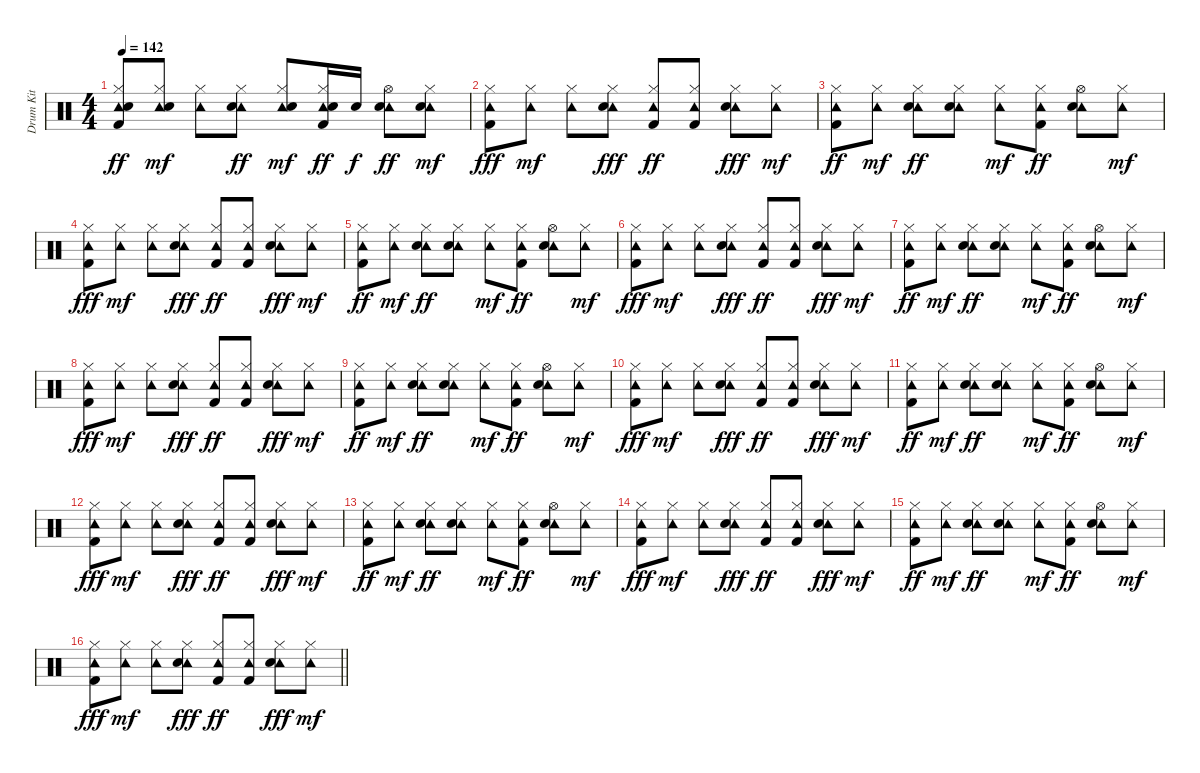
\track ("Drum Kit" "Drum Kit") {instrument percussion}
\staff {score}
\articulation defaults
\ts (4 4)
\tempo 142
\clef neutral
\ks c
("Tambourine (hit)" "Hi-Hat (closed)" "Electric Snare (hit)" "Kick (hit) 2").8{dy ff} ("Tambourine (hit)" "Electric Snare (hit)" "Hi-Hat (closed)").8{dy mf} ("Tambourine (hit)" "Hi-Hat (closed)").8 ("Tambourine (hit)" "Hi-Hat (closed)" "Electric Snare (hit)").8{dy ff} ("Tambourine (hit)" "Electric Snare (hit)" "Hi-Hat (closed)").8{dy mf} ("Tambourine (hit)" "Electric Snare (hit)" "Hi-Hat (closed)" "Kick (hit) 2").16{dy ff} "Electric Snare (hit)".16{dy f} ("Tambourine (hit)" "Hi-Hat (open)" "Electric Snare (hit)").8{dy ff} ("Tambourine (hit)" "Electric Snare (hit)" "Hi-Hat (closed)").8{dy mf} |
("Hi-Hat (closed)" "Tambourine (hit)" "Kick (hit) 2").8{dy fff} ("Tambourine (hit)" "Hi-Hat (closed)").8{dy mf} ("Tambourine (hit)" "Hi-Hat (closed)").8 ("Tambourine (hit)" "Hi-Hat (closed)" "Electric Snare (hit)").8{dy fff} ("Tambourine (hit)" "Hi-Hat (closed)" "Kick (hit) 2").8{dy ff} ("Tambourine (hit)" "Hi-Hat (closed)" "Kick (hit) 2").8 ("Tambourine (hit)" "Hi-Hat (closed)" "Electric Snare (hit)").8{dy fff} ("Tambourine (hit)" "Hi-Hat (closed)").8{dy mf} |
("Tambourine (hit)" "Hi-Hat (closed)" "Kick (hit) 2").8{dy ff} ("Tambourine (hit)" "Hi-Hat (closed)").8{dy mf} ("Tambourine (hit)" "Hi-Hat (closed)" "Electric Snare (hit)").8{dy ff} ("Tambourine (hit)" "Hi-Hat (closed)" "Electric Snare (hit)").8 ("Tambourine (hit)" "Hi-Hat (closed)").8{dy mf} ("Tambourine (hit)" "Hi-Hat (closed)" "Kick (hit) 2").8{dy ff} ("Tambourine (hit)" "Hi-Hat (open)" "Electric Snare (hit)").8 ("Tambourine (hit)" "Hi-Hat (closed)").8{dy mf} |
("Hi-Hat (closed)" "Tambourine (hit)" "Kick (hit) 2").8{dy fff} ("Tambourine (hit)" "Hi-Hat (closed)").8{dy mf} ("Tambourine (hit)" "Hi-Hat (closed)").8 ("Tambourine (hit)" "Hi-Hat (closed)" "Electric Snare (hit)").8{dy fff} ("Tambourine (hit)" "Hi-Hat (closed)" "Kick (hit) 2").8{dy ff} ("Tambourine (hit)" "Hi-Hat (closed)" "Kick (hit) 2").8 ("Tambourine (hit)" "Hi-Hat (closed)" "Electric Snare (hit)").8{dy fff} ("Tambourine (hit)" "Hi-Hat (closed)").8{dy mf} |
("Tambourine (hit)" "Hi-Hat (closed)" "Kick (hit) 2").8{dy ff} ("Tambourine (hit)" "Hi-Hat (closed)").8{dy mf} ("Tambourine (hit)" "Hi-Hat (closed)" "Electric Snare (hit)").8{dy ff} ("Tambourine (hit)" "Hi-Hat (closed)" "Electric Snare (hit)").8 ("Tambourine (hit)" "Hi-Hat (closed)").8{dy mf} ("Tambourine (hit)" "Hi-Hat (closed)" "Kick (hit) 2").8{dy ff} ("Tambourine (hit)" "Hi-Hat (open)" "Electric Snare (hit)").8 ("Tambourine (hit)" "Hi-Hat (closed)").8{dy mf} |
("Hi-Hat (closed)" "Tambourine (hit)" "Kick (hit) 2").8{dy fff} ("Tambourine (hit)" "Hi-Hat (closed)").8{dy mf} ("Tambourine (hit)" "Hi-Hat (closed)").8 ("Tambourine (hit)" "Hi-Hat (closed)" "Electric Snare (hit)").8{dy fff} ("Tambourine (hit)" "Hi-Hat (closed)" "Kick (hit) 2").8{dy ff} ("Tambourine (hit)" "Hi-Hat (closed)" "Kick (hit) 2").8 ("Tambourine (hit)" "Hi-Hat (closed)" "Electric Snare (hit)").8{dy fff} ("Tambourine (hit)" "Hi-Hat (closed)").8{dy mf} |
("Tambourine (hit)" "Hi-Hat (closed)" "Kick (hit) 2").8{dy ff} ("Tambourine (hit)" "Hi-Hat (closed)").8{dy mf} ("Tambourine (hit)" "Hi-Hat (closed)" "Electric Snare (hit)").8{dy ff} ("Tambourine (hit)" "Hi-Hat (closed)" "Electric Snare (hit)").8 ("Tambourine (hit)" "Hi-Hat (closed)").8{dy mf} ("Tambourine (hit)" "Hi-Hat (closed)" "Kick (hit) 2").8{dy ff} ("Tambourine (hit)" "Hi-Hat (open)" "Electric Snare (hit)").8 ("Tambourine (hit)" "Hi-Hat (closed)").8{dy mf} |
("Hi-Hat (closed)" "Tambourine (hit)" "Kick (hit) 2").8{dy fff} ("Tambourine (hit)" "Hi-Hat (closed)").8{dy mf} ("Tambourine (hit)" "Hi-Hat (closed)").8 ("Tambourine (hit)" "Hi-Hat (closed)" "Electric Snare (hit)").8{dy fff} ("Tambourine (hit)" "Hi-Hat (closed)" "Kick (hit) 2").8{dy ff} ("Tambourine (hit)" "Hi-Hat (closed)" "Kick (hit) 2").8 ("Tambourine (hit)" "Hi-Hat (closed)" "Electric Snare (hit)").8{dy fff} ("Tambourine (hit)" "Hi-Hat (closed)").8{dy mf} |
("Tambourine (hit)" "Hi-Hat (closed)" "Kick (hit) 2").8{dy ff} ("Tambourine (hit)" "Hi-Hat (closed)").8{dy mf} ("Tambourine (hit)" "Hi-Hat (closed)" "Electric Snare (hit)").8{dy ff} ("Tambourine (hit)" "Hi-Hat (closed)" "Electric Snare (hit)").8 ("Tambourine (hit)" "Hi-Hat (closed)").8{dy mf} ("Tambourine (hit)" "Hi-Hat (closed)" "Kick (hit) 2").8{dy ff} ("Tambourine (hit)" "Hi-Hat (open)" "Electric Snare (hit)").8 ("Tambourine (hit)" "Hi-Hat (closed)").8{dy mf} |
("Hi-Hat (closed)" "Tambourine (hit)" "Kick (hit) 2").8{dy fff} ("Tambourine (hit)" "Hi-Hat (closed)").8{dy mf} ("Tambourine (hit)" "Hi-Hat (closed)").8 ("Tambourine (hit)" "Hi-Hat (closed)" "Electric Snare (hit)").8{dy fff} ("Tambourine (hit)" "Hi-Hat (closed)" "Kick (hit) 2").8{dy ff} ("Tambourine (hit)" "Hi-Hat (closed)" "Kick (hit) 2").8 ("Tambourine (hit)" "Hi-Hat (closed)" "Electric Snare (hit)").8{dy fff} ("Tambourine (hit)" "Hi-Hat (closed)").8{dy mf} |
("Tambourine (hit)" "Hi-Hat (closed)" "Kick (hit) 2").8{dy ff} ("Tambourine (hit)" "Hi-Hat (closed)").8{dy mf} ("Tambourine (hit)" "Hi-Hat (closed)" "Electric Snare (hit)").8{dy ff} ("Tambourine (hit)" "Hi-Hat (closed)" "Electric Snare (hit)").8 ("Tambourine (hit)" "Hi-Hat (closed)").8{dy mf} ("Tambourine (hit)" "Hi-Hat (closed)" "Kick (hit) 2").8{dy ff} ("Tambourine (hit)" "Hi-Hat (open)" "Electric Snare (hit)").8 ("Tambourine (hit)" "Hi-Hat (closed)").8{dy mf} |
("Hi-Hat (closed)" "Tambourine (hit)" "Kick (hit) 2").8{dy fff} ("Tambourine (hit)" "Hi-Hat (closed)").8{dy mf} ("Tambourine (hit)" "Hi-Hat (closed)").8 ("Tambourine (hit)" "Hi-Hat (closed)" "Electric Snare (hit)").8{dy fff} ("Tambourine (hit)" "Hi-Hat (closed)" "Kick (hit) 2").8{dy ff} ("Tambourine (hit)" "Hi-Hat (closed)" "Kick (hit) 2").8 ("Tambourine (hit)" "Hi-Hat (closed)" "Electric Snare (hit)").8{dy fff} ("Tambourine (hit)" "Hi-Hat (closed)").8{dy mf} |
("Tambourine (hit)" "Hi-Hat (closed)" "Kick (hit) 2").8{dy ff} ("Tambourine (hit)" "Hi-Hat (closed)").8{dy mf} ("Tambourine (hit)" "Hi-Hat (closed)" "Electric Snare (hit)").8{dy ff} ("Tambourine (hit)" "Hi-Hat (closed)" "Electric Snare (hit)").8 ("Tambourine (hit)" "Hi-Hat (closed)").8{dy mf} ("Tambourine (hit)" "Hi-Hat (closed)" "Kick (hit) 2").8{dy ff} ("Tambourine (hit)" "Hi-Hat (open)" "Electric Snare (hit)").8 ("Tambourine (hit)" "Hi-Hat (closed)").8{dy mf} |
("Hi-Hat (closed)" "Tambourine (hit)" "Kick (hit) 2").8{dy fff} ("Tambourine (hit)" "Hi-Hat (closed)").8{dy mf} ("Tambourine (hit)" "Hi-Hat (closed)").8 ("Tambourine (hit)" "Hi-Hat (closed)" "Electric Snare (hit)").8{dy fff} ("Tambourine (hit)" "Hi-Hat (closed)" "Kick (hit) 2").8{dy ff} ("Tambourine (hit)" "Hi-Hat (closed)" "Kick (hit) 2").8 ("Tambourine (hit)" "Hi-Hat (closed)" "Electric Snare (hit)").8{dy fff} ("Tambourine (hit)" "Hi-Hat (closed)").8{dy mf} |
("Tambourine (hit)" "Hi-Hat (closed)" "Kick (hit) 2").8{dy ff} ("Tambourine (hit)" "Hi-Hat (closed)").8{dy mf} ("Tambourine (hit)" "Hi-Hat (closed)" "Electric Snare (hit)").8{dy ff} ("Tambourine (hit)" "Hi-Hat (closed)" "Electric Snare (hit)").8 ("Tambourine (hit)" "Hi-Hat (closed)").8{dy mf} ("Tambourine (hit)" "Hi-Hat (closed)" "Kick (hit) 2").8{dy ff} ("Tambourine (hit)" "Hi-Hat (open)" "Electric Snare (hit)").8 ("Tambourine (hit)" "Hi-Hat (closed)").8{dy mf} |
\barLineRight lightlight
("Hi-Hat (closed)" "Tambourine (hit)" "Kick (hit) 2").8{dy fff} ("Tambourine (hit)" "Hi-Hat (closed)").8{dy mf} ("Tambourine (hit)" "Hi-Hat (closed)").8 ("Tambourine (hit)" "Hi-Hat (closed)" "Electric Snare (hit)").8{dy fff} ("Tambourine (hit)" "Hi-Hat (closed)" "Kick (hit) 2").8{dy ff} ("Tambourine (hit)" "Hi-Hat (closed)" "Kick (hit) 2").8 ("Tambourine (hit)" "Hi-Hat (closed)" "Electric Snare (hit)").8{dy fff} ("Tambourine (hit)" "Hi-Hat (closed)").8{dy mf}
